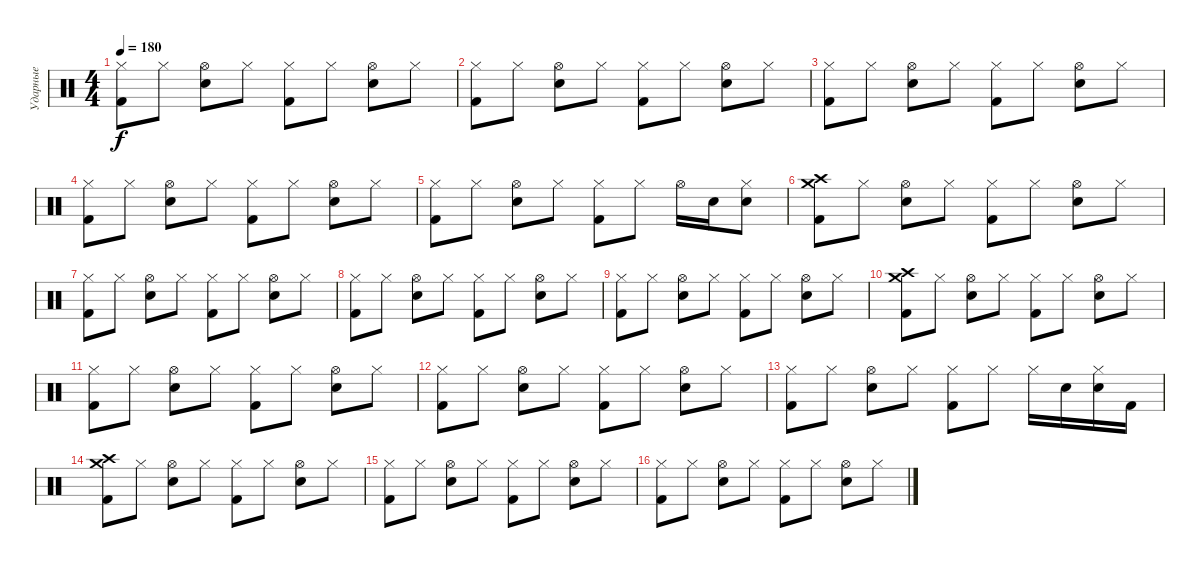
\track ("Ударные" "Ударные") {instrument percussion}
\staff {score}
\articulation defaults
\ts (4 4)
\tempo 180
\clef neutral
\ks c
("Hi-Hat (closed)" "Kick (hit) 2").8{dy f} "Hi-Hat (closed)".8 ("Hi-Hat (open)" "Snare (hit) 2").8 "Hi-Hat (closed)".8 ("Hi-Hat (closed)" "Kick (hit) 2").8 "Hi-Hat (closed)".8 ("Hi-Hat (open)" "Snare (hit) 2").8 "Hi-Hat (closed)".8 |
("Hi-Hat (closed)" "Kick (hit) 2").8 "Hi-Hat (closed)".8 ("Hi-Hat (open)" "Snare (hit) 2").8 "Hi-Hat (closed)".8 ("Hi-Hat (closed)" "Kick (hit) 2").8 "Hi-Hat (closed)".8 ("Hi-Hat (open)" "Snare (hit) 2").8 "Hi-Hat (closed)".8 |
("Hi-Hat (closed)" "Kick (hit) 2").8 "Hi-Hat (closed)".8 ("Hi-Hat (open)" "Snare (hit) 2").8 "Hi-Hat (closed)".8 ("Hi-Hat (closed)" "Kick (hit) 2").8 "Hi-Hat (closed)".8 ("Hi-Hat (open)" "Snare (hit) 2").8 "Hi-Hat (closed)".8 |
("Hi-Hat (closed)" "Kick (hit) 2").8 "Hi-Hat (closed)".8 ("Hi-Hat (open)" "Snare (hit) 2").8 "Hi-Hat (closed)".8 ("Hi-Hat (closed)" "Kick (hit) 2").8 "Hi-Hat (closed)".8 ("Hi-Hat (open)" "Snare (hit) 2").8 "Hi-Hat (closed)".8 |
("Hi-Hat (closed)" "Kick (hit) 2").8 "Hi-Hat (closed)".8 ("Hi-Hat (open)" "Snare (hit) 2").8 "Hi-Hat (closed)".8 ("Hi-Hat (closed)" "Kick (hit) 2").8 "Hi-Hat (closed)".8 "Hi-Hat (open)".16 "Snare (hit) 2".16 ("Hi-Hat (closed)" "Snare (hit) 2").8 |
("Crash high (hit)" "Crash medium (hit)" "Kick (hit) 2").8 "Hi-Hat (closed)".8 ("Hi-Hat (open)" "Snare (hit) 2").8 "Hi-Hat (closed)".8 ("Hi-Hat (closed)" "Kick (hit) 2").8 "Hi-Hat (closed)".8 ("Hi-Hat (open)" "Snare (hit) 2").8 "Hi-Hat (closed)".8 |
("Hi-Hat (closed)" "Kick (hit) 2").8 "Hi-Hat (closed)".8 ("Hi-Hat (open)" "Snare (hit) 2").8 "Hi-Hat (closed)".8 ("Hi-Hat (closed)" "Kick (hit) 2").8 "Hi-Hat (closed)".8 ("Hi-Hat (open)" "Snare (hit) 2").8 "Hi-Hat (closed)".8 |
("Hi-Hat (closed)" "Kick (hit) 2").8 "Hi-Hat (closed)".8 ("Hi-Hat (open)" "Snare (hit) 2").8 "Hi-Hat (closed)".8 ("Hi-Hat (closed)" "Kick (hit) 2").8 "Hi-Hat (closed)".8 ("Hi-Hat (open)" "Snare (hit) 2").8 "Hi-Hat (closed)".8 |
("Hi-Hat (closed)" "Kick (hit) 2").8 "Hi-Hat (closed)".8 ("Hi-Hat (open)" "Snare (hit) 2").8 "Hi-Hat (closed)".8 ("Hi-Hat (closed)" "Kick (hit) 2").8 "Hi-Hat (closed)".8 ("Hi-Hat (open)" "Snare (hit) 2").8 "Hi-Hat (closed)".8 |
("Crash high (hit)" "Crash medium (hit)" "Kick (hit) 2").8 "Hi-Hat (closed)".8 ("Hi-Hat (open)" "Snare (hit) 2").8 "Hi-Hat (closed)".8 ("Hi-Hat (closed)" "Kick (hit) 2").8 "Hi-Hat (closed)".8 ("Hi-Hat (open)" "Snare (hit) 2").8 "Hi-Hat (closed)".8 |
("Hi-Hat (closed)" "Kick (hit) 2").8 "Hi-Hat (closed)".8 ("Hi-Hat (open)" "Snare (hit) 2").8 "Hi-Hat (closed)".8 ("Hi-Hat (closed)" "Kick (hit) 2").8 "Hi-Hat (closed)".8 ("Hi-Hat (open)" "Snare (hit) 2").8 "Hi-Hat (closed)".8 |
("Hi-Hat (closed)" "Kick (hit) 2").8 "Hi-Hat (closed)".8 ("Hi-Hat (open)" "Snare (hit) 2").8 "Hi-Hat (closed)".8 ("Hi-Hat (closed)" "Kick (hit) 2").8 "Hi-Hat (closed)".8 ("Hi-Hat (open)" "Snare (hit) 2").8 "Hi-Hat (closed)".8 |
("Hi-Hat (closed)" "Kick (hit) 2").8 "Hi-Hat (closed)".8 ("Hi-Hat (open)" "Snare (hit) 2").8 "Hi-Hat (closed)".8 ("Hi-Hat (closed)" "Kick (hit) 2").8 "Hi-Hat (closed)".8 "Hi-Hat (closed)".16 "Snare (hit) 2".16 ("Hi-Hat (closed)" "Snare (hit) 2").16 "Kick (hit) 2".16 |
("Crash high (hit)" "Crash medium (hit)" "Kick (hit) 2").8 "Hi-Hat (closed)".8 ("Hi-Hat (open)" "Snare (hit) 2").8 "Hi-Hat (closed)".8 ("Hi-Hat (closed)" "Kick (hit) 2").8 "Hi-Hat (closed)".8 ("Hi-Hat (open)" "Snare (hit) 2").8 "Hi-Hat (closed)".8 |
("Hi-Hat (closed)" "Kick (hit) 2").8 "Hi-Hat (closed)".8 ("Hi-Hat (open)" "Snare (hit) 2").8 "Hi-Hat (closed)".8 ("Hi-Hat (closed)" "Kick (hit) 2").8 "Hi-Hat (closed)".8 ("Hi-Hat (open)" "Snare (hit) 2").8 "Hi-Hat (closed)".8 |
("Hi-Hat (closed)" "Kick (hit) 2").8 "Hi-Hat (closed)".8 ("Hi-Hat (open)" "Snare (hit) 2").8 "Hi-Hat (closed)".8 ("Hi-Hat (closed)" "Kick (hit) 2").8 "Hi-Hat (closed)".8 ("Hi-Hat (open)" "Snare (hit) 2").8 "Hi-Hat (closed)".8
